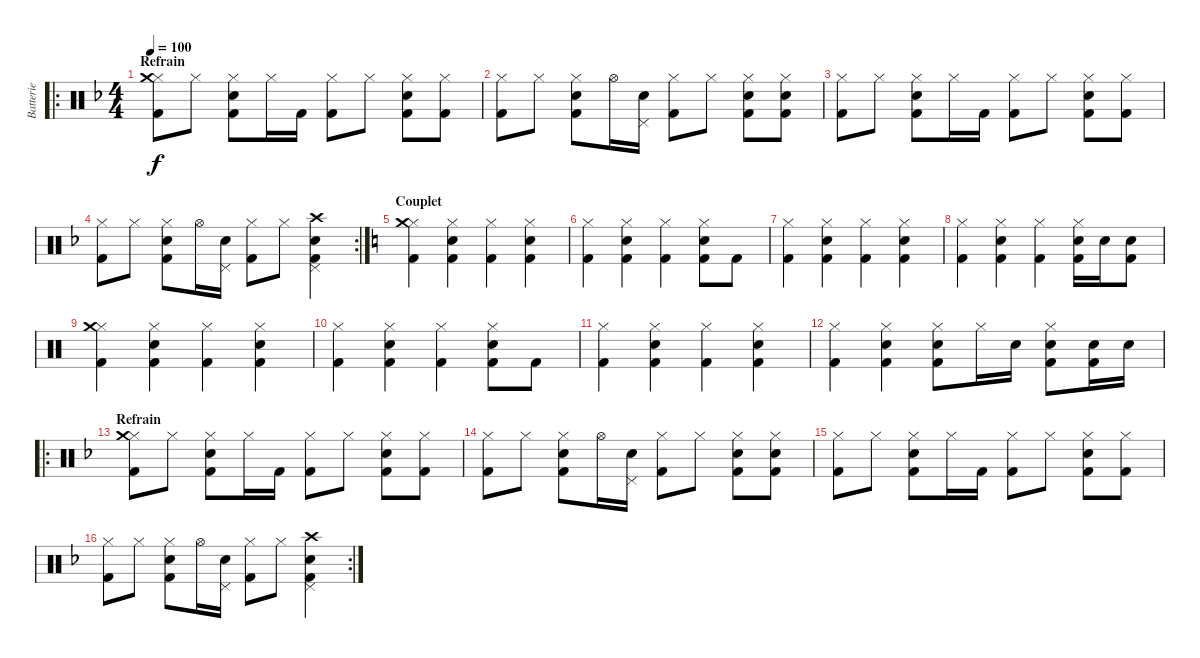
\track ("Batterie" "Batterie") {instrument percussion}
\staff {score}
\articulation defaults
\ro
\ts (4 4)
\section ("" "Refrain")
\tempo 100
\clef neutral
\ks f
("Hi-Hat (closed)" "Crash medium (hit)" "Kick (hit) 2").8{dy f} "Hi-Hat (closed)".8 ("Hi-Hat (closed)" "Snare (hit) 2" "Kick (hit) 2").8 "Hi-Hat (closed)".16 "Kick (hit) 2".16 ("Hi-Hat (closed)" "Kick (hit) 2").8 "Hi-Hat (closed)".8 ("Hi-Hat (closed)" "Snare (hit) 2" "Kick (hit) 2").8 ("Hi-Hat (closed)" "Kick (hit) 2").8 |
("Hi-Hat (closed)" "Kick (hit) 2").8 "Hi-Hat (closed)".8 ("Hi-Hat (closed)" "Snare (hit) 2" "Kick (hit) 2").8 "Hi-Hat (open)".16 ("Pedal Hi-Hat (hit)" "Snare (hit) 2").16 ("Hi-Hat (closed)" "Kick (hit) 2").8 "Hi-Hat (closed)".8 ("Hi-Hat (closed)" "Snare (hit) 2" "Kick (hit) 2").8 ("Hi-Hat (closed)" "Snare (hit) 2" "Kick (hit) 2").8 |
("Hi-Hat (closed)" "Kick (hit) 2").8 "Hi-Hat (closed)".8 ("Hi-Hat (closed)" "Snare (hit) 2" "Kick (hit) 2").8 "Hi-Hat (closed)".16 "Kick (hit) 2".16 ("Hi-Hat (closed)" "Kick (hit) 2").8 "Hi-Hat (closed)".8 ("Hi-Hat (closed)" "Snare (hit) 2" "Kick (hit) 2").8 ("Hi-Hat (closed)" "Kick (hit) 2").8 |
\rc 2
("Hi-Hat (closed)" "Kick (hit) 2").8 "Hi-Hat (closed)".8 ("Hi-Hat (closed)" "Snare (hit) 2" "Kick (hit) 2").8 "Hi-Hat (open)".16 ("Pedal Hi-Hat (hit)" "Snare (hit) 2").16 ("Hi-Hat (closed)" "Kick (hit) 2").8 "Hi-Hat (closed)".8 ("Pedal Hi-Hat (hit)" "Crash high (hit)" "Snare (hit) 2" "Kick (hit) 2").4 |
\section ("" "Couplet")
\ks c
("Hi-Hat (closed)" "Crash medium (hit)" "Kick (hit) 2").4 ("Hi-Hat (closed)" "Snare (hit) 2" "Kick (hit) 2").4 ("Hi-Hat (closed)" "Kick (hit) 2").4 ("Hi-Hat (closed)" "Snare (hit) 2" "Kick (hit) 2").4 |
("Hi-Hat (closed)" "Kick (hit) 2").4 ("Hi-Hat (closed)" "Snare (hit) 2" "Kick (hit) 2").4 ("Hi-Hat (closed)" "Kick (hit) 2").4 ("Hi-Hat (closed)" "Snare (hit) 2" "Kick (hit) 2").8 "Kick (hit) 2".8 |
("Hi-Hat (closed)" "Kick (hit) 2").4 ("Hi-Hat (closed)" "Snare (hit) 2" "Kick (hit) 2").4 ("Hi-Hat (closed)" "Kick (hit) 2").4 ("Hi-Hat (closed)" "Snare (hit) 2" "Kick (hit) 2").4 |
("Hi-Hat (closed)" "Kick (hit) 2").4 ("Hi-Hat (closed)" "Snare (hit) 2" "Kick (hit) 2").4 ("Hi-Hat (closed)" "Kick (hit) 2").4 ("Hi-Hat (closed)" "Snare (hit) 2" "Kick (hit) 2").16 "Snare (hit) 2".16 ("Snare (hit) 2" "Kick (hit) 2").8 |
("Hi-Hat (closed)" "Crash medium (hit)" "Kick (hit) 2").4 ("Hi-Hat (closed)" "Snare (hit) 2" "Kick (hit) 2").4 ("Hi-Hat (closed)" "Kick (hit) 2").4 ("Hi-Hat (closed)" "Snare (hit) 2" "Kick (hit) 2").4 |
("Hi-Hat (closed)" "Kick (hit) 2").4 ("Hi-Hat (closed)" "Snare (hit) 2" "Kick (hit) 2").4 ("Hi-Hat (closed)" "Kick (hit) 2").4 ("Hi-Hat (closed)" "Snare (hit) 2" "Kick (hit) 2").8 "Kick (hit) 2".8 |
("Hi-Hat (closed)" "Kick (hit) 2").4 ("Hi-Hat (closed)" "Snare (hit) 2" "Kick (hit) 2").4 ("Hi-Hat (closed)" "Kick (hit) 2").4 ("Hi-Hat (closed)" "Snare (hit) 2" "Kick (hit) 2").4 |
("Hi-Hat (closed)" "Kick (hit) 2").4 ("Hi-Hat (closed)" "Snare (hit) 2" "Kick (hit) 2").4 ("Hi-Hat (closed)" "Snare (hit) 2" "Kick (hit) 2").8 "Hi-Hat (closed)".16 "Snare (hit) 2".16 ("Hi-Hat (closed)" "Snare (hit) 2" "Kick (hit) 2").8 ("Snare (hit) 2" "Kick (hit) 2").16 "Snare (hit) 2".16 |
\ro
\section ("" "Refrain")
\ks f
("Hi-Hat (closed)" "Crash medium (hit)" "Kick (hit) 2").8 "Hi-Hat (closed)".8 ("Hi-Hat (closed)" "Snare (hit) 2" "Kick (hit) 2").8 "Hi-Hat (closed)".16 "Kick (hit) 2".16 ("Hi-Hat (closed)" "Kick (hit) 2").8 "Hi-Hat (closed)".8 ("Hi-Hat (closed)" "Snare (hit) 2" "Kick (hit) 2").8 ("Hi-Hat (closed)" "Kick (hit) 2").8 |
("Hi-Hat (closed)" "Kick (hit) 2").8 "Hi-Hat (closed)".8 ("Hi-Hat (closed)" "Snare (hit) 2" "Kick (hit) 2").8 "Hi-Hat (open)".16 ("Pedal Hi-Hat (hit)" "Snare (hit) 2").16 ("Hi-Hat (closed)" "Kick (hit) 2").8 "Hi-Hat (closed)".8 ("Hi-Hat (closed)" "Snare (hit) 2" "Kick (hit) 2").8 ("Hi-Hat (closed)" "Snare (hit) 2" "Kick (hit) 2").8 |
("Hi-Hat (closed)" "Kick (hit) 2").8 "Hi-Hat (closed)".8 ("Hi-Hat (closed)" "Snare (hit) 2" "Kick (hit) 2").8 "Hi-Hat (closed)".16 "Kick (hit) 2".16 ("Hi-Hat (closed)" "Kick (hit) 2").8 "Hi-Hat (closed)".8 ("Hi-Hat (closed)" "Snare (hit) 2" "Kick (hit) 2").8 ("Hi-Hat (closed)" "Kick (hit) 2").8 |
\rc 2
("Hi-Hat (closed)" "Kick (hit) 2").8 "Hi-Hat (closed)".8 ("Hi-Hat (closed)" "Snare (hit) 2" "Kick (hit) 2").8 "Hi-Hat (open)".16 ("Pedal Hi-Hat (hit)" "Snare (hit) 2").16 ("Hi-Hat (closed)" "Kick (hit) 2").8 "Hi-Hat (closed)".8 ("Pedal Hi-Hat (hit)" "Crash high (hit)" "Snare (hit) 2" "Kick (hit) 2").4
